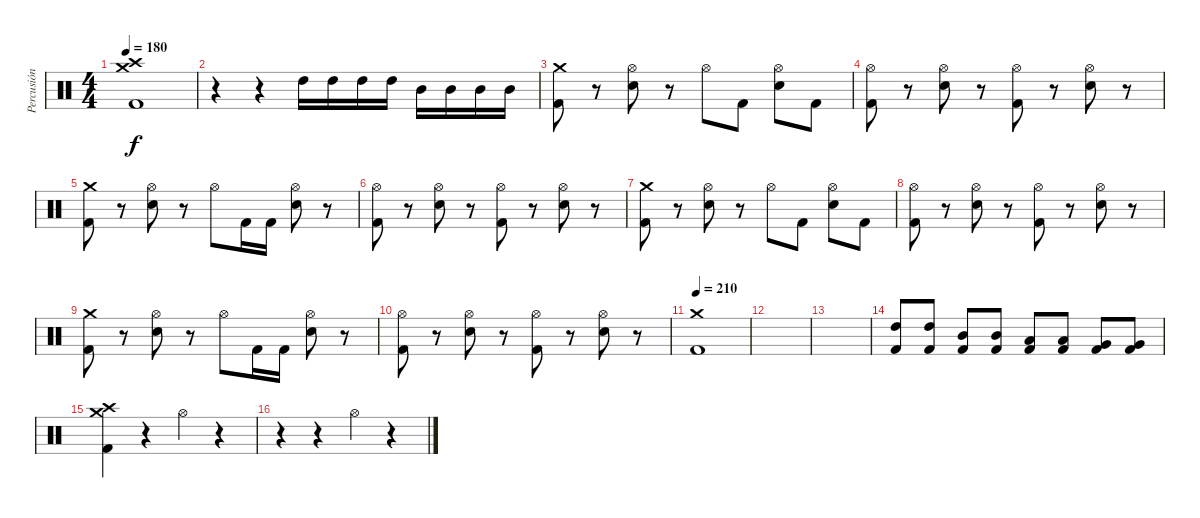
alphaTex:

\track ("Percusión" "Percusión") {instrument percussion}
\staff {score}
\articulation defaults
\ts (4 4)
\tempo 180
\clef neutral
\ks c
("Crash high (hit)" "Crash medium (hit)" "Kick (hit) 2").1{dy f} |
r.4 r.4 "High Tom (hit)".16 "High Tom (hit)".16 "High Tom (hit)".16 "High Tom (hit)".16 "Mid Tom (hit)".16 "Mid Tom (hit)".16 "Mid Tom (hit)".16 "Mid Tom (hit)".16 |
("Crash medium (hit)" "Kick (hit) 2").8 r.8 ("Hi-Hat (open)" "Electric Snare (hit)").8 r.8 "Hi-Hat (open)".8 "Kick (hit) 2".8 ("Hi-Hat (open)" "Electric Snare (hit)").8 "Kick (hit) 2".8 |
("Hi-Hat (open)" "Kick (hit) 2").8 r.8 ("Hi-Hat (open)" "Electric Snare (hit)").8 r.8 ("Hi-Hat (open)" "Kick (hit) 2").8 r.8 ("Hi-Hat (open)" "Electric Snare (hit)").8 r.8 |
("Crash medium (hit)" "Kick (hit) 2").8 r.8 ("Hi-Hat (open)" "Electric Snare (hit)").8 r.8 "Hi-Hat (open)".8 "Kick (hit) 2".16 "Kick (hit) 2".16 ("Hi-Hat (open)" "Electric Snare (hit)").8 r.8 |
("Hi-Hat (open)" "Kick (hit) 2").8 r.8 ("Hi-Hat (open)" "Electric Snare (hit)").8 r.8 ("Hi-Hat (open)" "Kick (hit) 2").8 r.8 ("Hi-Hat (open)" "Electric Snare (hit)").8 r.8 |
("Crash medium (hit)" "Kick (hit) 2").8 r.8 ("Hi-Hat (open)" "Electric Snare (hit)").8 r.8 "Hi-Hat (open)".8 "Kick (hit) 2".8 ("Hi-Hat (open)" "Electric Snare (hit)").8 "Kick (hit) 2".8 |
("Hi-Hat (open)" "Kick (hit) 2").8 r.8 ("Hi-Hat (open)" "Electric Snare (hit)").8 r.8 ("Hi-Hat (open)" "Kick (hit) 2").8 r.8 ("Hi-Hat (open)" "Electric Snare (hit)").8 r.8 |
("Crash medium (hit)" "Kick (hit) 2").8 r.8 ("Hi-Hat (open)" "Electric Snare (hit)").8 r.8 "Hi-Hat (open)".8 "Kick (hit) 2".16 "Kick (hit) 2".16 ("Hi-Hat (open)" "Electric Snare (hit)").8 r.8 |
("Hi-Hat (open)" "Kick (hit) 2").8 r.8 ("Hi-Hat (open)" "Electric Snare (hit)").8 r.8 ("Hi-Hat (open)" "Kick (hit) 2").8 r.8 ("Hi-Hat (open)" "Electric Snare (hit)").8 r.8 |
\tempo 210
("Crash medium (hit)" "Kick (hit) 2").1 |
|
|
("High Tom (hit)" "Kick (hit) 2").8 ("High Tom (hit)" "Kick (hit) 2").8 ("Mid Tom (hit)" "Kick (hit) 2").8 ("Mid Tom (hit)" "Kick (hit) 2").8 ("Low Tom (hit)" "Kick (hit) 2").8 ("Low Tom (hit)" "Kick (hit) 2").8 ("Very Low Tom (hit)" "Kick (hit) 2").8 ("Very Low Tom (hit)" "Kick (hit) 2").8 |
("Crash medium (hit)" "Crash high (hit)" "Kick (hit) 2").4 r.4 "Hi-Hat (open)".4 r.4 |
r.4 r.4 "Hi-Hat (open)".4 r.4
